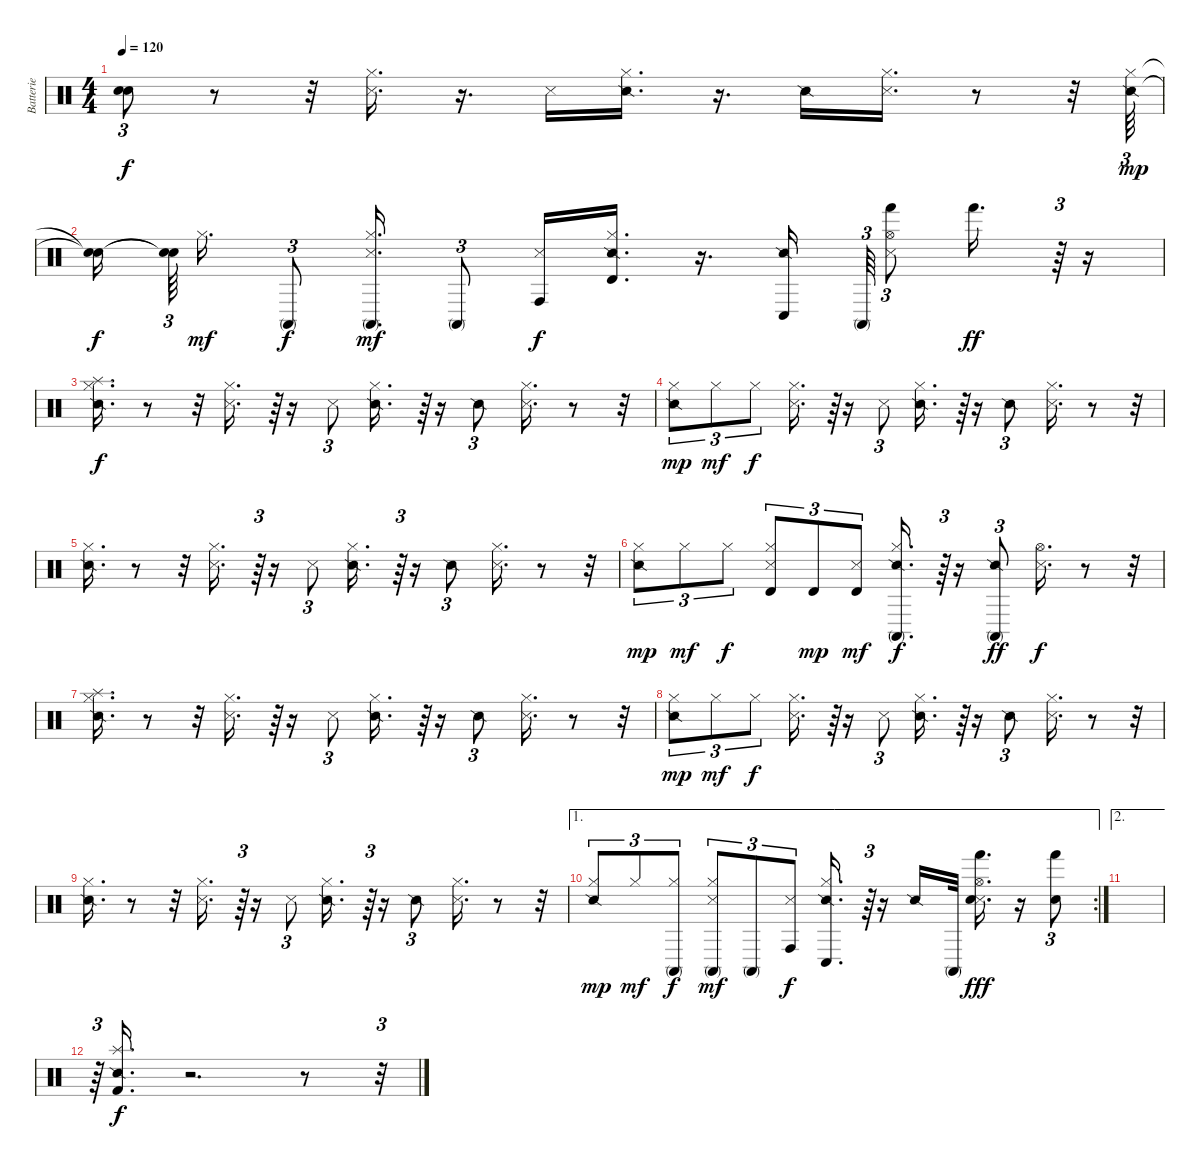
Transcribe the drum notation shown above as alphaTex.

\track ("Batterie" "Batterie") {instrument percussion}
\staff {score}
\articulation defaults
\ts (4 4)
\tempo 120
\clef neutral
\ks c
("Snare (hit)"{t} "Snare (hit)"{t}).8{tu (3 2) dy f} r.8 r.32 ("Metronome (hit)" "Hi-Hat (closed)").16{d} r.16{d} "Snare (side stick) 3".16 ("Snare (side stick) 2" "Hi-Hat (closed)").16{d} r.16{d} "Snare (side stick) 2".16 ("Snare (side stick) 3" "Hi-Hat (closed)").16{d} r.8 r.32 ("Hi-Hat (closed)" "Snare (side stick) 2").64{tu (3 2) dy mp} |
("Snare (hit)"{t} "Snare (hit)"{t}).16{dy f beam splitsecondary} ("Snare (hit)"{t} "Snare (hit)"{t}).64{tu (3 2) beam splitsecondary} "Hi-Hat (closed)".16{d dy mf} "Conga high (mute)".8{tu (3 2) dy f} ("Conga high (mute)" "Metronome (hit)" "Hi-Hat (closed)").16{d dy mf} "Conga high (mute)".8{tu (3 2)} ("Conga high (hit)" "Snare (side stick) 3").16{dy f} ("Snare (side stick) 2" "Hi-Hat (closed)" "Timbale high (hit)").16{d} r.16{d} ("Snare (side stick) 2" "Conga low (hit)").16 "Conga high (mute)".64{tu (3 2)} ("Snare (side stick) 3" "Hi-Hat (open)" "Hand (hit)").8{tu (3 2)} "Hand (hit)".16{d dy ff} r.64{tu (3 2)} r.16 |
("Snare (side stick) 2" "Hi-Hat (closed)" "Splash (hit)").16{d dy f} r.8 r.32 ("Metronome (hit)" "Hi-Hat (closed)").16{d} r.64{tu (3 2)} r.16 "Snare (side stick) 3".8{tu (3 2)} ("Snare (side stick) 2" "Hi-Hat (closed)").16{d} r.64{tu (3 2)} r.16 "Snare (side stick) 2".8{tu (3 2)} ("Snare (side stick) 3" "Hi-Hat (closed)").16{d} r.8 r.32 |
("Hi-Hat (closed)" "Snare (side stick) 2").8{tu (3 2) dy mp} "Hi-Hat (closed)".8{tu (3 2) dy mf} "Hi-Hat (closed)".8{tu (3 2) dy f} ("Metronome (hit)" "Hi-Hat (closed)").16{d} r.64{tu (3 2)} r.16 "Snare (side stick) 3".8{tu (3 2)} ("Snare (side stick) 2" "Hi-Hat (closed)").16{d} r.64{tu (3 2)} r.16 "Snare (side stick) 2".8{tu (3 2)} ("Snare (side stick) 3" "Hi-Hat (closed)").16{d} r.8 r.32 |
("Snare (side stick) 2" "Hi-Hat (closed)").16{d} r.8 r.32 ("Metronome (hit)" "Hi-Hat (closed)").16{d} r.64{tu (3 2)} r.16 "Snare (side stick) 3".8{tu (3 2)} ("Snare (side stick) 2" "Hi-Hat (closed)").16{d} r.64{tu (3 2)} r.16 "Snare (side stick) 2".8{tu (3 2)} ("Snare (side stick) 3" "Hi-Hat (closed)").16{d} r.8 r.32 |
("Hi-Hat (closed)" "Snare (side stick) 2").8{tu (3 2) dy mp} "Hi-Hat (closed)".8{tu (3 2) dy mf} "Hi-Hat (closed)".8{tu (3 2) dy f} ("Metronome (hit)" "Hi-Hat (closed)" "Timbale high (hit)").8{tu (3 2)} "Timbale high (hit)".8{tu (3 2) dy mp} ("Snare (side stick) 3" "Timbale high (hit)").8{tu (3 2) dy mf} ("Snare (side stick) 2" "Hi-Hat (closed)" "Conga high (mute)").16{d dy f} r.64{tu (3 2)} r.16 ("Snare (side stick) 2" "Conga high (mute)").8{tu (3 2) dy ff} ("Snare (side stick) 3" "Hi-Hat (open)").16{d dy f} r.8 r.32 |
("Snare (side stick) 2" "Hi-Hat (closed)" "Splash (hit)").16{d} r.8 r.32 ("Metronome (hit)" "Hi-Hat (closed)").16{d} r.64{tu (3 2)} r.16 "Snare (side stick) 3".8{tu (3 2)} ("Snare (side stick) 2" "Hi-Hat (closed)").16{d} r.64{tu (3 2)} r.16 "Snare (side stick) 2".8{tu (3 2)} ("Snare (side stick) 3" "Hi-Hat (closed)").16{d} r.8 r.32 |
("Hi-Hat (closed)" "Snare (side stick) 2").8{tu (3 2) dy mp} "Hi-Hat (closed)".8{tu (3 2) dy mf} "Hi-Hat (closed)".8{tu (3 2) dy f} ("Metronome (hit)" "Hi-Hat (closed)").16{d} r.64{tu (3 2)} r.16 "Snare (side stick) 3".8{tu (3 2)} ("Snare (side stick) 2" "Hi-Hat (closed)").16{d} r.64{tu (3 2)} r.16 "Snare (side stick) 2".8{tu (3 2)} ("Snare (side stick) 3" "Hi-Hat (closed)").16{d} r.8 r.32 |
("Snare (side stick) 2" "Hi-Hat (closed)").16{d} r.8 r.32 ("Metronome (hit)" "Hi-Hat (closed)").16{d} r.64{tu (3 2)} r.16 "Snare (side stick) 3".8{tu (3 2)} ("Snare (side stick) 2" "Hi-Hat (closed)").16{d} r.64{tu (3 2)} r.16 "Snare (side stick) 2".8{tu (3 2)} ("Snare (side stick) 3" "Hi-Hat (closed)").16{d} r.8 r.32 |
\ae 1
\rc 2
("Hi-Hat (closed)" "Snare (side stick) 2").8{tu (3 2) dy mp} "Hi-Hat (closed)".8{tu (3 2) dy mf} ("Hi-Hat (closed)" "Conga high (mute)").8{tu (3 2) dy f} ("Metronome (hit)" "Hi-Hat (closed)" "Conga high (mute)").8{tu (3 2) dy mf} "Conga high (mute)".8{tu (3 2)} ("Snare (side stick) 3" "Conga high (hit)").8{tu (3 2) dy f} ("Snare (side stick) 2" "Hi-Hat (closed)" "Conga low (hit)").16{d} r.64{tu (3 2)} r.16 "Snare (side stick) 2".16 "Conga high (mute)".32 ("Snare (side stick) 3" "Hi-Hat (open)" "Hand Clap (hit)" "Hand (hit)").16{d dy fff} r.16 ("Snare (hit) 2" "Hand (hit)").8{tu (3 2)} |
\ae 2
|
r.64{tu (3 2)} ("Snare (side stick) 2" "Kick (hit) 2" "Splash (hit)").16{d dy f} r.2{d} r.8 r.32{tu (3 2)}
